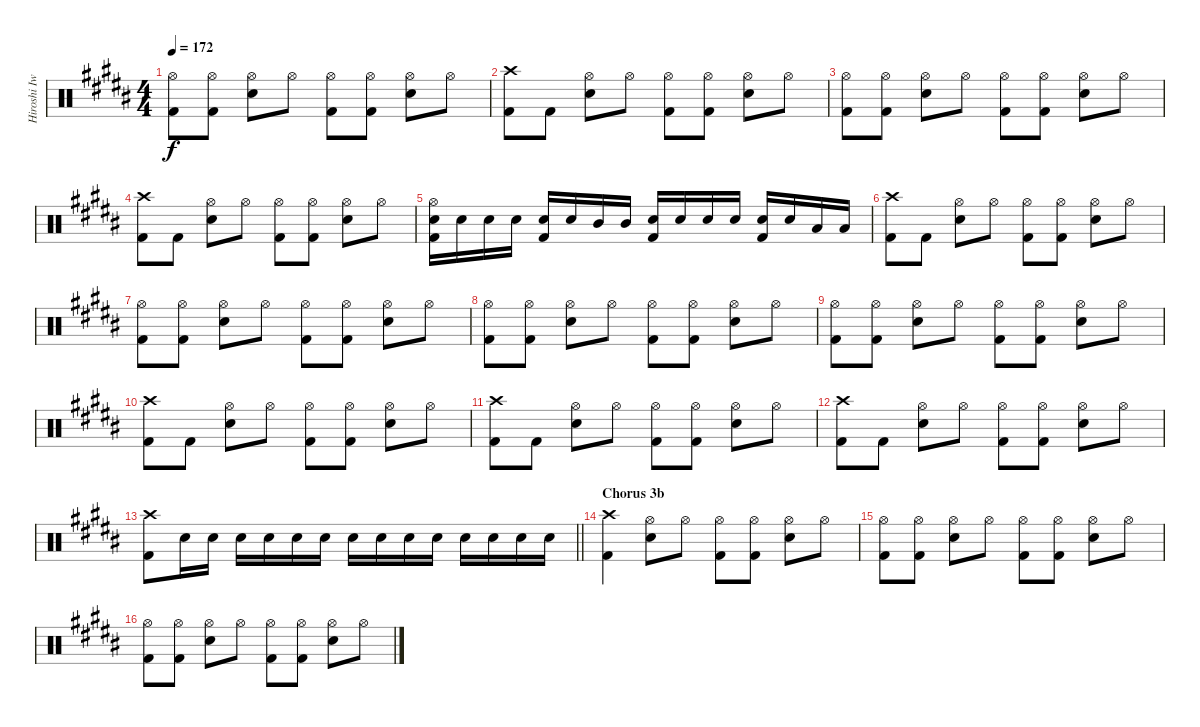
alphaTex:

\track ("Hiroshi Iwasaki - Drums" "Hiroshi Iw") {instrument percussion}
\staff {score}
\articulation defaults
\ts (4 4)
\tempo 172
\clef neutral
\ks b
("Hi-Hat (open)" "Kick (hit) 2").8{dy f} ("Hi-Hat (open)" "Kick (hit) 2").8 ("Snare (hit) 2" "Hi-Hat (open)").8 "Hi-Hat (open)".8 ("Hi-Hat (open)" "Kick (hit) 2").8 ("Hi-Hat (open)" "Kick (hit) 2").8 ("Snare (hit) 2" "Hi-Hat (open)").8 "Hi-Hat (open)".8 |
("Crash high (hit)" "Kick (hit) 2").8 "Kick (hit) 2".8 ("Snare (hit) 2" "Hi-Hat (open)").8 "Hi-Hat (open)".8 ("Hi-Hat (open)" "Kick (hit) 2").8 ("Hi-Hat (open)" "Kick (hit) 2").8 ("Snare (hit) 2" "Hi-Hat (open)").8 "Hi-Hat (open)".8 |
("Hi-Hat (open)" "Kick (hit) 2").8 ("Hi-Hat (open)" "Kick (hit) 2").8 ("Snare (hit) 2" "Hi-Hat (open)").8 "Hi-Hat (open)".8 ("Hi-Hat (open)" "Kick (hit) 2").8 ("Hi-Hat (open)" "Kick (hit) 2").8 ("Snare (hit) 2" "Hi-Hat (open)").8 "Hi-Hat (open)".8 |
("Crash high (hit)" "Kick (hit) 2").8 "Kick (hit) 2".8 ("Snare (hit) 2" "Hi-Hat (open)").8 "Hi-Hat (open)".8 ("Hi-Hat (open)" "Kick (hit) 2").8 ("Hi-Hat (open)" "Kick (hit) 2").8 ("Snare (hit) 2" "Hi-Hat (open)").8 "Hi-Hat (open)".8 |
("Snare (hit) 2" "Hi-Hat (open)" "Kick (hit) 2").16 "Snare (hit) 2".16 "Snare (hit) 2".16 "Snare (hit) 2".16 ("Snare (hit) 2" "Kick (hit) 2").16 "Snare (hit) 2".16 "Mid Tom (hit)".16 "Mid Tom (hit)".16 ("Snare (hit) 2" "Kick (hit) 2").16 "Snare (hit) 2".16 "Snare (hit) 2".16 "Snare (hit) 2".16 ("Snare (hit) 2" "Kick (hit) 2").16 "Snare (hit) 2".16 "Low Tom (hit)".16 "Low Tom (hit)".16 |
("Crash high (hit)" "Kick (hit) 2").8 "Kick (hit) 2".8 ("Snare (hit) 2" "Hi-Hat (open)").8 "Hi-Hat (open)".8 ("Hi-Hat (open)" "Kick (hit) 2").8 ("Hi-Hat (open)" "Kick (hit) 2").8 ("Snare (hit) 2" "Hi-Hat (open)").8 "Hi-Hat (open)".8 |
("Hi-Hat (open)" "Kick (hit) 2").8 ("Hi-Hat (open)" "Kick (hit) 2").8 ("Snare (hit) 2" "Hi-Hat (open)").8 "Hi-Hat (open)".8 ("Hi-Hat (open)" "Kick (hit) 2").8 ("Hi-Hat (open)" "Kick (hit) 2").8 ("Snare (hit) 2" "Hi-Hat (open)").8 "Hi-Hat (open)".8 |
("Hi-Hat (open)" "Kick (hit) 2").8 ("Hi-Hat (open)" "Kick (hit) 2").8 ("Snare (hit) 2" "Hi-Hat (open)").8 "Hi-Hat (open)".8 ("Hi-Hat (open)" "Kick (hit) 2").8 ("Hi-Hat (open)" "Kick (hit) 2").8 ("Snare (hit) 2" "Hi-Hat (open)").8 "Hi-Hat (open)".8 |
("Hi-Hat (open)" "Kick (hit) 2").8 ("Hi-Hat (open)" "Kick (hit) 2").8 ("Snare (hit) 2" "Hi-Hat (open)").8 "Hi-Hat (open)".8 ("Hi-Hat (open)" "Kick (hit) 2").8 ("Hi-Hat (open)" "Kick (hit) 2").8 ("Snare (hit) 2" "Hi-Hat (open)").8 "Hi-Hat (open)".8 |
("Crash high (hit)" "Kick (hit) 2").8 "Kick (hit) 2".8 ("Snare (hit) 2" "Hi-Hat (open)").8 "Hi-Hat (open)".8 ("Hi-Hat (open)" "Kick (hit) 2").8 ("Hi-Hat (open)" "Kick (hit) 2").8 ("Snare (hit) 2" "Hi-Hat (open)").8 "Hi-Hat (open)".8 |
("Crash high (hit)" "Kick (hit) 2").8 "Kick (hit) 2".8 ("Snare (hit) 2" "Hi-Hat (open)").8 "Hi-Hat (open)".8 ("Hi-Hat (open)" "Kick (hit) 2").8 ("Hi-Hat (open)" "Kick (hit) 2").8 ("Snare (hit) 2" "Hi-Hat (open)").8 "Hi-Hat (open)".8 |
("Crash high (hit)" "Kick (hit) 2").8 "Kick (hit) 2".8 ("Snare (hit) 2" "Hi-Hat (open)").8 "Hi-Hat (open)".8 ("Hi-Hat (open)" "Kick (hit) 2").8 ("Hi-Hat (open)" "Kick (hit) 2").8 ("Snare (hit) 2" "Hi-Hat (open)").8 "Hi-Hat (open)".8 |
\barLineRight lightlight
("Crash high (hit)" "Kick (hit) 2").8 "Snare (hit) 2".16 "Snare (hit) 2".16 "Snare (hit) 2".16 "Snare (hit) 2".16 "Snare (hit) 2".16 "Snare (hit) 2".16 "Snare (hit) 2".16 "Snare (hit) 2".16 "Snare (hit) 2".16 "Snare (hit) 2".16 "Snare (hit) 2".16 "Snare (hit) 2".16 "Snare (hit) 2".16 "Snare (hit) 2".16 |
\section ("" "Chorus 3b")
("Crash high (hit)" "Kick (hit) 2").4 ("Snare (hit) 2" "Hi-Hat (open)").8 "Hi-Hat (open)".8 ("Hi-Hat (open)" "Kick (hit) 2").8 ("Hi-Hat (open)" "Kick (hit) 2").8 ("Snare (hit) 2" "Hi-Hat (open)").8 "Hi-Hat (open)".8 |
("Hi-Hat (open)" "Kick (hit) 2").8 ("Hi-Hat (open)" "Kick (hit) 2").8 ("Snare (hit) 2" "Hi-Hat (open)").8 "Hi-Hat (open)".8 ("Hi-Hat (open)" "Kick (hit) 2").8 ("Hi-Hat (open)" "Kick (hit) 2").8 ("Snare (hit) 2" "Hi-Hat (open)").8 "Hi-Hat (open)".8 |
("Hi-Hat (open)" "Kick (hit) 2").8 ("Hi-Hat (open)" "Kick (hit) 2").8 ("Snare (hit) 2" "Hi-Hat (open)").8 "Hi-Hat (open)".8 ("Hi-Hat (open)" "Kick (hit) 2").8 ("Hi-Hat (open)" "Kick (hit) 2").8 ("Snare (hit) 2" "Hi-Hat (open)").8 "Hi-Hat (open)".8
